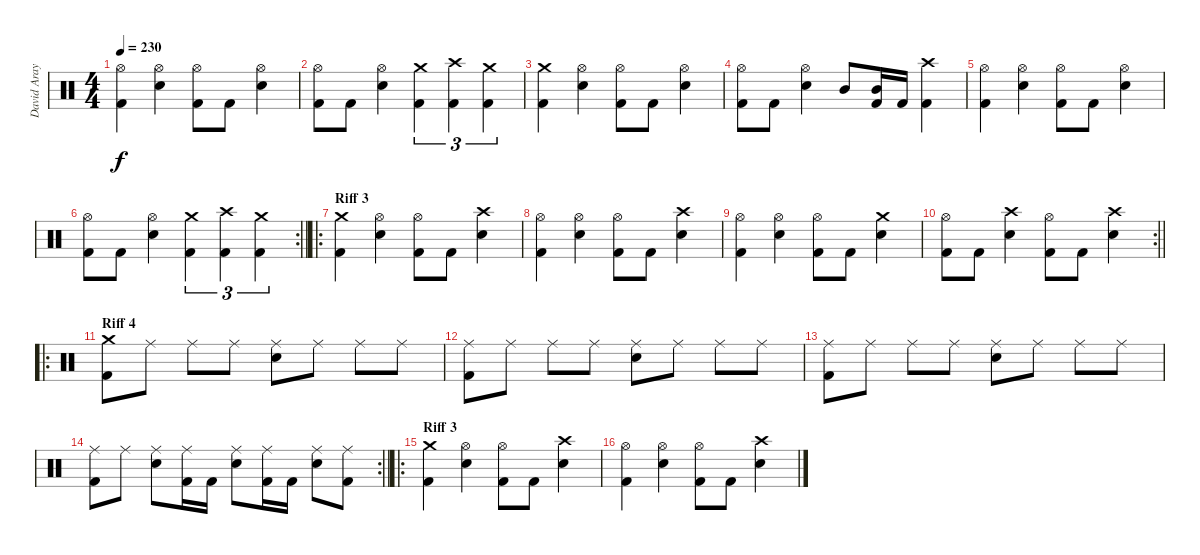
\track ("David Araya" "David Aray") {instrument percussion}
\staff {score}
\articulation defaults
\ts (4 4)
\tempo 230
\clef neutral
\ks c
("Hi-Hat (open)" "Kick (hit) 2").4{dy f} ("Hi-Hat (open)" "Electric Snare (hit)").4 ("Hi-Hat (open)" "Kick (hit) 2").8 "Kick (hit) 2".8 ("Hi-Hat (open)" "Electric Snare (hit)").4 |
("Hi-Hat (open)" "Kick (hit) 2").8 "Kick (hit) 2".8 ("Hi-Hat (open)" "Electric Snare (hit)").4 ("Crash medium (hit)" "Kick (hit) 2").4{tu (3 2)} ("Crash high (hit)" "Kick (hit) 2").4{tu (3 2)} ("Crash medium (hit)" "Kick (hit) 2").4{tu (3 2)} |
("Crash medium (hit)" "Kick (hit) 2").4 ("Hi-Hat (open)" "Electric Snare (hit)").4 ("Hi-Hat (open)" "Kick (hit) 2").8 "Kick (hit) 2".8 ("Hi-Hat (open)" "Electric Snare (hit)").4 |
("Hi-Hat (open)" "Kick (hit) 2").8 "Kick (hit) 2".8 ("Hi-Hat (open)" "Electric Snare (hit)").4 "Mid Tom (hit)".8 ("Mid Tom (hit)" "Kick (hit) 2").16 "Kick (hit) 2".16 ("Crash high (hit)" "Kick (hit) 2").4 |
("Hi-Hat (open)" "Kick (hit) 2").4 ("Hi-Hat (open)" "Electric Snare (hit)").4 ("Hi-Hat (open)" "Kick (hit) 2").8 "Kick (hit) 2".8 ("Hi-Hat (open)" "Electric Snare (hit)").4 |
\rc 2
\barLineRight lightlight
("Hi-Hat (open)" "Kick (hit) 2").8 "Kick (hit) 2".8 ("Hi-Hat (open)" "Electric Snare (hit)").4 ("Crash medium (hit)" "Kick (hit) 2").4{tu (3 2)} ("Crash high (hit)" "Kick (hit) 2").4{tu (3 2)} ("Crash medium (hit)" "Kick (hit) 2").4{tu (3 2)} |
\ro
\section ("" "Riff 3")
("Crash medium (hit)" "Kick (hit) 2").4 ("Hi-Hat (open)" "Electric Snare (hit)").4 ("Hi-Hat (open)" "Kick (hit) 2").8 "Kick (hit) 2".8 ("Crash high (hit)" "Electric Snare (hit)").4 |
("Hi-Hat (open)" "Kick (hit) 2").4 ("Hi-Hat (open)" "Electric Snare (hit)").4 ("Hi-Hat (open)" "Kick (hit) 2").8 "Kick (hit) 2".8 ("Crash high (hit)" "Electric Snare (hit)").4 |
("Hi-Hat (open)" "Kick (hit) 2").4 ("Hi-Hat (open)" "Electric Snare (hit)").4 ("Hi-Hat (open)" "Kick (hit) 2").8 "Kick (hit) 2".8 ("Crash medium (hit)" "Electric Snare (hit)").4 |
\rc 2
\barLineRight lightlight
("Hi-Hat (open)" "Kick (hit) 2").8 "Kick (hit) 2".8 ("Crash high (hit)" "Electric Snare (hit)").4 ("Hi-Hat (open)" "Kick (hit) 2").8 "Kick (hit) 2".8 ("Crash high (hit)" "Electric Snare (hit)").4 |
\ro
\section ("" "Riff 4")
("Crash medium (hit)" "Kick (hit) 2").8 "Ride (middle)".8 "Ride (middle)".8 "Ride (middle)".8 ("Ride (middle)" "Electric Snare (hit)").8 "Ride (middle)".8 "Ride (middle)".8 "Ride (middle)".8 |
("Ride (middle)" "Kick (hit) 2").8 "Ride (middle)".8 "Ride (middle)".8 "Ride (middle)".8 ("Ride (middle)" "Electric Snare (hit)").8 "Ride (middle)".8 "Ride (middle)".8 "Ride (middle)".8 |
("Ride (middle)" "Kick (hit) 2").8 "Ride (middle)".8 "Ride (middle)".8 "Ride (middle)".8 ("Ride (middle)" "Electric Snare (hit)").8 "Ride (middle)".8 "Ride (middle)".8 "Ride (middle)".8 |
\rc 2
\barLineRight lightlight
("Ride (middle)" "Kick (hit) 2").8 "Ride (middle)".8 ("Ride (middle)" "Electric Snare (hit)").8 ("Ride (middle)" "Kick (hit) 2").16 "Kick (hit) 2".16 ("Ride (middle)" "Electric Snare (hit)").8 ("Ride (middle)" "Kick (hit) 2").16 "Kick (hit) 2".16 ("Ride (middle)" "Electric Snare (hit)").8 ("Ride (middle)" "Kick (hit) 2").8 |
\ro
\section ("" "Riff 3")
("Crash medium (hit)" "Kick (hit) 2").4 ("Hi-Hat (open)" "Electric Snare (hit)").4 ("Hi-Hat (open)" "Kick (hit) 2").8 "Kick (hit) 2".8 ("Crash high (hit)" "Electric Snare (hit)").4 |
("Hi-Hat (open)" "Kick (hit) 2").4 ("Hi-Hat (open)" "Electric Snare (hit)").4 ("Hi-Hat (open)" "Kick (hit) 2").8 "Kick (hit) 2".8 ("Crash high (hit)" "Electric Snare (hit)").4
